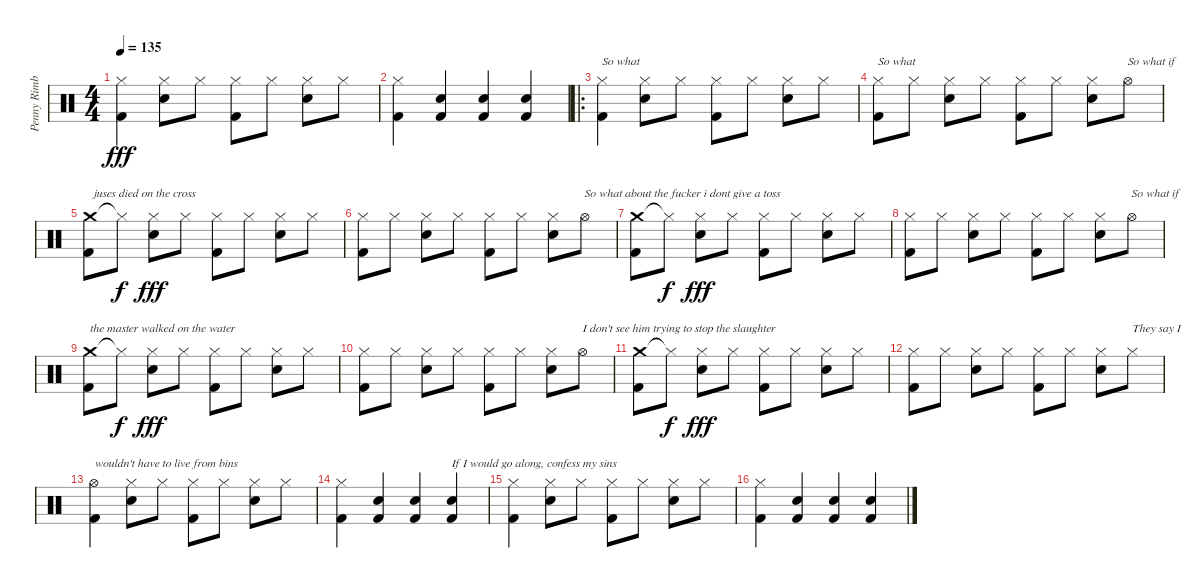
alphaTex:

\track ("Penny Rimbaud" "Penny Rimb") {instrument percussion}
\staff {score}
\articulation defaults
\ts (4 4)
\tempo 135
\clef neutral
\ks c
("Hi-Hat (closed)" "Kick (hit) 2").4{dy fff} ("Hi-Hat (closed)" "Electric Snare (hit)").8 "Hi-Hat (closed)".8 ("Hi-Hat (closed)" "Kick (hit) 2").8 "Hi-Hat (closed)".8 ("Hi-Hat (closed)" "Electric Snare (hit)").8 "Hi-Hat (closed)".8 |
("Hi-Hat (closed)" "Kick (hit) 2").4 ("Electric Snare (hit)" "Kick (hit) 2").4 ("Electric Snare (hit)" "Kick (hit) 2").4 ("Electric Snare (hit)" "Kick (hit) 2").4 |
\ro
("Hi-Hat (closed)" "Kick (hit) 2").4{txt "So what"} ("Hi-Hat (closed)" "Electric Snare (hit)").8 "Hi-Hat (closed)".8 ("Hi-Hat (closed)" "Kick (hit) 2").8 "Hi-Hat (closed)".8 ("Hi-Hat (closed)" "Electric Snare (hit)").8 "Hi-Hat (closed)".8 |
("Hi-Hat (closed)" "Kick (hit) 2").8{txt "So what"} "Hi-Hat (closed)".8 ("Hi-Hat (closed)" "Electric Snare (hit)").8 "Hi-Hat (closed)".8 ("Hi-Hat (closed)" "Kick (hit) 2").8 "Hi-Hat (closed)".8 ("Hi-Hat (closed)" "Electric Snare (hit)").8 "Hi-Hat (open)".8{txt "So what if"} |
("Crash medium (hit)" "Kick (hit) 2").8{txt " juses died on the cross"} "Hi-Hat (closed)"{t}.8{dy f} ("Hi-Hat (closed)" "Electric Snare (hit)").8{dy fff} "Hi-Hat (closed)".8 ("Hi-Hat (closed)" "Kick (hit) 2").8 "Hi-Hat (closed)".8 ("Hi-Hat (closed)" "Electric Snare (hit)").8 "Hi-Hat (closed)".8 |
("Hi-Hat (closed)" "Kick (hit) 2").8 "Hi-Hat (closed)".8 ("Hi-Hat (closed)" "Electric Snare (hit)").8 "Hi-Hat (closed)".8 ("Hi-Hat (closed)" "Kick (hit) 2").8 "Hi-Hat (closed)".8 ("Hi-Hat (closed)" "Electric Snare (hit)").8 "Hi-Hat (open)".8{txt "So what about the fucker i dont give a toss"} |
("Crash medium (hit)" "Kick (hit) 2").8 "Hi-Hat (closed)"{t}.8{dy f} ("Hi-Hat (closed)" "Electric Snare (hit)").8{dy fff} "Hi-Hat (closed)".8 ("Hi-Hat (closed)" "Kick (hit) 2").8 "Hi-Hat (closed)".8 ("Hi-Hat (closed)" "Electric Snare (hit)").8 "Hi-Hat (closed)".8 |
("Hi-Hat (closed)" "Kick (hit) 2").8 "Hi-Hat (closed)".8 ("Hi-Hat (closed)" "Electric Snare (hit)").8 "Hi-Hat (closed)".8 ("Hi-Hat (closed)" "Kick (hit) 2").8 "Hi-Hat (closed)".8 ("Hi-Hat (closed)" "Electric Snare (hit)").8 "Hi-Hat (open)".8{txt "So what if "} |
("Crash medium (hit)" "Kick (hit) 2").8{txt "the master walked on the water"} "Hi-Hat (closed)"{t}.8{dy f} ("Hi-Hat (closed)" "Electric Snare (hit)").8{dy fff} "Hi-Hat (closed)".8 ("Hi-Hat (closed)" "Kick (hit) 2").8 "Hi-Hat (closed)".8 ("Hi-Hat (closed)" "Electric Snare (hit)").8 "Hi-Hat (closed)".8 |
("Hi-Hat (closed)" "Kick (hit) 2").8 "Hi-Hat (closed)".8 ("Hi-Hat (closed)" "Electric Snare (hit)").8 "Hi-Hat (closed)".8 ("Hi-Hat (closed)" "Kick (hit) 2").8 "Hi-Hat (closed)".8 ("Hi-Hat (closed)" "Electric Snare (hit)").8 "Hi-Hat (open)".8{txt "I don't see him trying to stop the slaughter"} |
("Crash medium (hit)" "Kick (hit) 2").8 "Hi-Hat (closed)"{t}.8{dy f} ("Hi-Hat (closed)" "Electric Snare (hit)").8{dy fff} "Hi-Hat (closed)".8 ("Hi-Hat (closed)" "Kick (hit) 2").8 "Hi-Hat (closed)".8 ("Hi-Hat (closed)" "Electric Snare (hit)").8 "Hi-Hat (closed)".8 |
("Hi-Hat (closed)" "Kick (hit) 2").8 "Hi-Hat (closed)".8 ("Hi-Hat (closed)" "Electric Snare (hit)").8 "Hi-Hat (closed)".8 ("Hi-Hat (closed)" "Kick (hit) 2").8 "Hi-Hat (closed)".8 ("Hi-Hat (closed)" "Electric Snare (hit)").8 "Hi-Hat (closed)".8{txt "They say I "} |
("Hi-Hat (open)" "Kick (hit) 2").4{txt "wouldn't have to live from bins"} ("Hi-Hat (closed)" "Electric Snare (hit)").8 "Hi-Hat (closed)".8 ("Hi-Hat (closed)" "Kick (hit) 2").8 "Hi-Hat (closed)".8 ("Hi-Hat (closed)" "Electric Snare (hit)").8 "Hi-Hat (closed)".8 |
("Hi-Hat (closed)" "Kick (hit) 2").4 ("Electric Snare (hit)" "Kick (hit) 2").4 ("Electric Snare (hit)" "Kick (hit) 2").4 ("Electric Snare (hit)" "Kick (hit) 2").4{txt "If I would go along, confess my sins"} |
("Hi-Hat (closed)" "Kick (hit) 2").4 ("Hi-Hat (closed)" "Electric Snare (hit)").8 "Hi-Hat (closed)".8 ("Hi-Hat (closed)" "Kick (hit) 2").8 "Hi-Hat (closed)".8 ("Hi-Hat (closed)" "Electric Snare (hit)").8 "Hi-Hat (closed)".8 |
("Hi-Hat (closed)" "Kick (hit) 2").4 ("Electric Snare (hit)" "Kick (hit) 2").4 ("Electric Snare (hit)" "Kick (hit) 2").4 ("Electric Snare (hit)" "Kick (hit) 2").4
